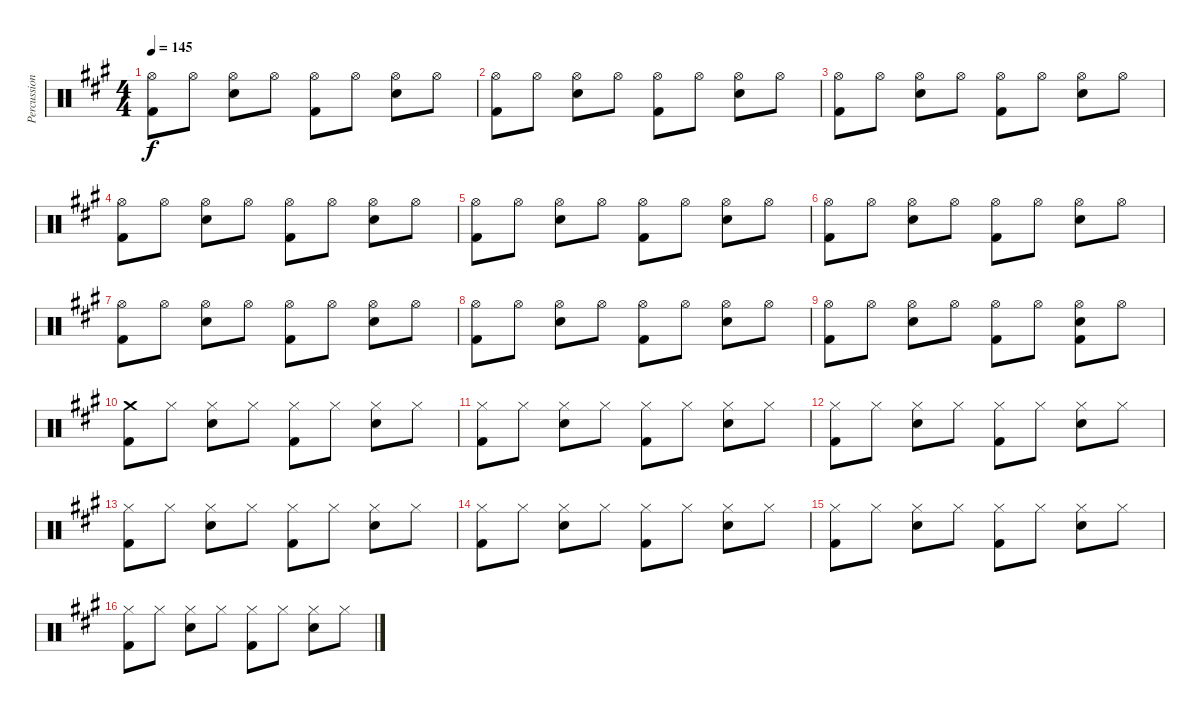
\track ("Percussion" "Percussion") {instrument percussion}
\staff {score}
\articulation defaults
\ts (4 4)
\tempo 145
\clef neutral
\ks a
("Hi-Hat (open)" "Kick (hit) 2").8{dy f} "Hi-Hat (open)".8 ("Hi-Hat (open)" "Snare (hit) 2").8 "Hi-Hat (open)".8 ("Hi-Hat (open)" "Kick (hit) 2").8 "Hi-Hat (open)".8 ("Hi-Hat (open)" "Snare (hit) 2").8 "Hi-Hat (open)".8 |
("Hi-Hat (open)" "Kick (hit) 2").8 "Hi-Hat (open)".8 ("Hi-Hat (open)" "Snare (hit) 2").8 "Hi-Hat (open)".8 ("Hi-Hat (open)" "Kick (hit) 2").8 "Hi-Hat (open)".8 ("Hi-Hat (open)" "Snare (hit) 2").8 "Hi-Hat (open)".8 |
("Hi-Hat (open)" "Kick (hit) 2").8 "Hi-Hat (open)".8 ("Hi-Hat (open)" "Snare (hit) 2").8 "Hi-Hat (open)".8 ("Hi-Hat (open)" "Kick (hit) 2").8 "Hi-Hat (open)".8 ("Hi-Hat (open)" "Snare (hit) 2").8 "Hi-Hat (open)".8 |
("Hi-Hat (open)" "Kick (hit) 2").8 "Hi-Hat (open)".8 ("Hi-Hat (open)" "Snare (hit) 2").8 "Hi-Hat (open)".8 ("Hi-Hat (open)" "Kick (hit) 2").8 "Hi-Hat (open)".8 ("Hi-Hat (open)" "Snare (hit) 2").8 "Hi-Hat (open)".8 |
("Hi-Hat (open)" "Kick (hit) 2").8 "Hi-Hat (open)".8 ("Hi-Hat (open)" "Snare (hit) 2").8 "Hi-Hat (open)".8 ("Hi-Hat (open)" "Kick (hit) 2").8 "Hi-Hat (open)".8 ("Hi-Hat (open)" "Snare (hit) 2").8 "Hi-Hat (open)".8 |
("Hi-Hat (open)" "Kick (hit) 2").8 "Hi-Hat (open)".8 ("Hi-Hat (open)" "Snare (hit) 2").8 "Hi-Hat (open)".8 ("Hi-Hat (open)" "Kick (hit) 2").8 "Hi-Hat (open)".8 ("Hi-Hat (open)" "Snare (hit) 2").8 "Hi-Hat (open)".8 |
("Hi-Hat (open)" "Kick (hit) 2").8 "Hi-Hat (open)".8 ("Hi-Hat (open)" "Snare (hit) 2").8 "Hi-Hat (open)".8 ("Hi-Hat (open)" "Kick (hit) 2").8 "Hi-Hat (open)".8 ("Hi-Hat (open)" "Snare (hit) 2").8 "Hi-Hat (open)".8 |
("Hi-Hat (open)" "Kick (hit) 2").8 "Hi-Hat (open)".8 ("Hi-Hat (open)" "Snare (hit) 2").8 "Hi-Hat (open)".8 ("Hi-Hat (open)" "Kick (hit) 2").8 "Hi-Hat (open)".8 ("Hi-Hat (open)" "Snare (hit) 2").8 "Hi-Hat (open)".8 |
("Hi-Hat (open)" "Kick (hit) 2").8 "Hi-Hat (open)".8 ("Hi-Hat (open)" "Snare (hit) 2").8 "Hi-Hat (open)".8 ("Hi-Hat (open)" "Kick (hit) 2").8 "Hi-Hat (open)".8 ("Hi-Hat (open)" "Snare (hit) 2" "Kick (hit) 2").8 "Hi-Hat (open)".8 |
("Crash medium (hit)" "Kick (hit) 2").8 "Hi-Hat (closed)".8 ("Hi-Hat (closed)" "Snare (hit) 2").8 "Hi-Hat (closed)".8 ("Hi-Hat (closed)" "Kick (hit) 2").8 "Hi-Hat (closed)".8 ("Hi-Hat (closed)" "Snare (hit) 2").8 "Hi-Hat (closed)".8 |
("Hi-Hat (closed)" "Kick (hit) 2").8 "Hi-Hat (closed)".8 ("Hi-Hat (closed)" "Snare (hit) 2").8 "Hi-Hat (closed)".8 ("Hi-Hat (closed)" "Kick (hit) 2").8 "Hi-Hat (closed)".8 ("Hi-Hat (closed)" "Snare (hit) 2").8 "Hi-Hat (closed)".8 |
("Hi-Hat (closed)" "Kick (hit) 2").8 "Hi-Hat (closed)".8 ("Hi-Hat (closed)" "Snare (hit) 2").8 "Hi-Hat (closed)".8 ("Hi-Hat (closed)" "Kick (hit) 2").8 "Hi-Hat (closed)".8 ("Hi-Hat (closed)" "Snare (hit) 2").8 "Hi-Hat (closed)".8 |
("Hi-Hat (closed)" "Kick (hit) 2").8 "Hi-Hat (closed)".8 ("Hi-Hat (closed)" "Snare (hit) 2").8 "Hi-Hat (closed)".8 ("Hi-Hat (closed)" "Kick (hit) 2").8 "Hi-Hat (closed)".8 ("Hi-Hat (closed)" "Snare (hit) 2").8 "Hi-Hat (closed)".8 |
("Hi-Hat (closed)" "Kick (hit) 2").8 "Hi-Hat (closed)".8 ("Hi-Hat (closed)" "Snare (hit) 2").8 "Hi-Hat (closed)".8 ("Hi-Hat (closed)" "Kick (hit) 2").8 "Hi-Hat (closed)".8 ("Hi-Hat (closed)" "Snare (hit) 2").8 "Hi-Hat (closed)".8 |
("Hi-Hat (closed)" "Kick (hit) 2").8 "Hi-Hat (closed)".8 ("Hi-Hat (closed)" "Snare (hit) 2").8 "Hi-Hat (closed)".8 ("Hi-Hat (closed)" "Kick (hit) 2").8 "Hi-Hat (closed)".8 ("Hi-Hat (closed)" "Snare (hit) 2").8 "Hi-Hat (closed)".8 |
("Hi-Hat (closed)" "Kick (hit) 2").8 "Hi-Hat (closed)".8 ("Hi-Hat (closed)" "Snare (hit) 2").8 "Hi-Hat (closed)".8 ("Hi-Hat (closed)" "Kick (hit) 2").8 "Hi-Hat (closed)".8 ("Hi-Hat (closed)" "Snare (hit) 2").8 "Hi-Hat (closed)".8
